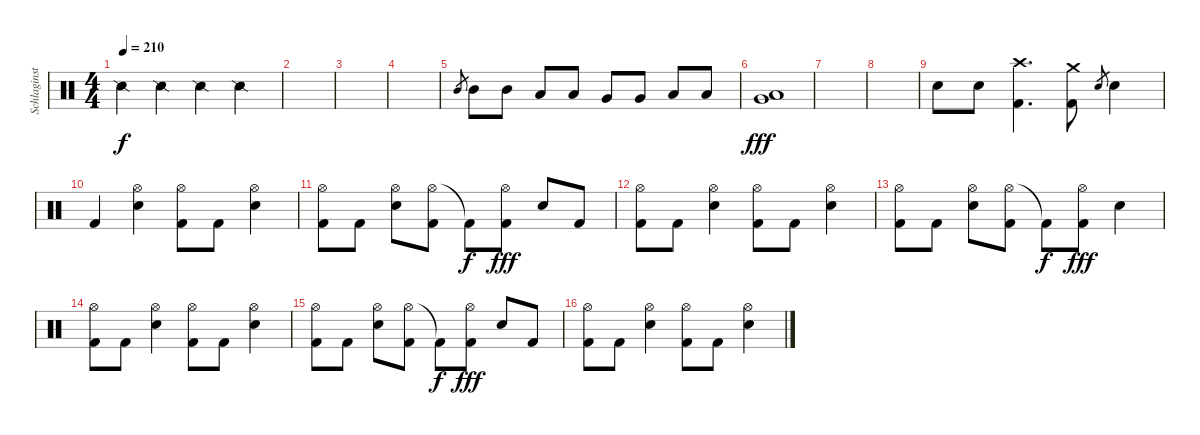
\track ("Schlaginstrumente - Auswahl" "Schlaginst") {instrument percussion}
\staff {score}
\articulation defaults
\ts (4 4)
\tempo 210
\clef neutral
\ks c "Snare (side stick) 2".4{dy f} "Snare (side stick) 2".4 "Snare (side stick) 2".4 "Snare (side stick) 2".4
|
|
|
|
"Mid Tom (hit)".8{gr} "Mid Tom (hit)".8 "Mid Tom (hit)".8 "Low Tom (hit)".8 "Low Tom (hit)".8 "Very Low Tom (hit)".8 "Very Low Tom (hit)".8 "Low Floor Tom (hit)".8 "Low Floor Tom (hit)".8 |
("Very Low Tom (hit)" "Low Floor Tom (hit)").1{dy fff} |
|
|
"Electric Snare (hit)".8 "Electric Snare (hit)".8 ("Crash high (hit)" "Kick (hit) 2").4{d} ("Crash medium (hit)" "Kick (hit) 2").8 "Electric Snare (hit)".8{gr} "Electric Snare (hit)".4 |
"Kick (hit) 2".4 ("Hi-Hat (open)" "Electric Snare (hit)").4 ("Hi-Hat (open)" "Kick (hit) 2").8 "Kick (hit) 2".8 ("Hi-Hat (open)" "Electric Snare (hit)").4 |
("Hi-Hat (open)" "Kick (hit) 2").8 "Kick (hit) 2".8 ("Hi-Hat (open)" "Electric Snare (hit)").8 ("Hi-Hat (open)" "Kick (hit) 2").8 "Kick (hit) 2"{t}.8{dy f} ("Hi-Hat (open)" "Kick (hit) 2").8{dy fff} "Electric Snare (hit)".8 "Kick (hit) 2".8 |
("Hi-Hat (open)" "Kick (hit) 2").8 "Kick (hit) 2".8 ("Hi-Hat (open)" "Electric Snare (hit)").4 ("Hi-Hat (open)" "Kick (hit) 2").8 "Kick (hit) 2".8 ("Hi-Hat (open)" "Electric Snare (hit)").4 |
("Hi-Hat (open)" "Kick (hit) 2").8 "Kick (hit) 2".8 ("Hi-Hat (open)" "Electric Snare (hit)").8 ("Hi-Hat (open)" "Kick (hit) 2").8 "Kick (hit) 2"{t}.8{dy f} ("Hi-Hat (open)" "Kick (hit) 2").8{dy fff} "Electric Snare (hit)".4 |
("Hi-Hat (open)" "Kick (hit) 2").8 "Kick (hit) 2".8 ("Hi-Hat (open)" "Electric Snare (hit)").4 ("Hi-Hat (open)" "Kick (hit) 2").8 "Kick (hit) 2".8 ("Hi-Hat (open)" "Electric Snare (hit)").4 |
("Hi-Hat (open)" "Kick (hit) 2").8 "Kick (hit) 2".8 ("Hi-Hat (open)" "Electric Snare (hit)").8 ("Hi-Hat (open)" "Kick (hit) 2").8 "Kick (hit) 2"{t}.8{dy f} ("Hi-Hat (open)" "Kick (hit) 2").8{dy fff} "Electric Snare (hit)".8 "Kick (hit) 2".8 |
("Hi-Hat (open)" "Kick (hit) 2").8 "Kick (hit) 2".8 ("Hi-Hat (open)" "Electric Snare (hit)").4 ("Hi-Hat (open)" "Kick (hit) 2").8 "Kick (hit) 2".8 ("Hi-Hat (open)" "Electric Snare (hit)").4
